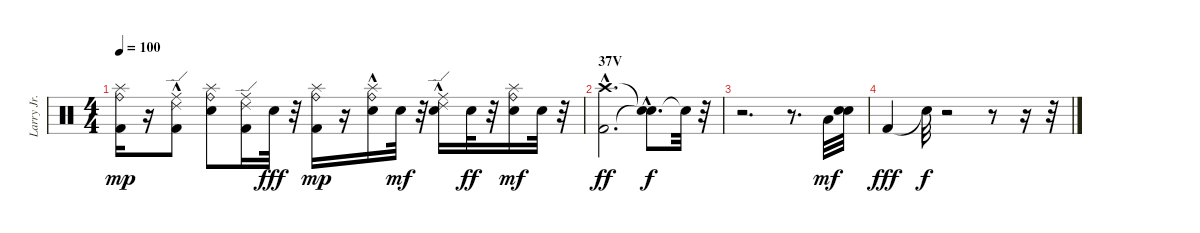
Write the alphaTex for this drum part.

\track ("Larry Jr." "Larry Jr.") {instrument percussion}
\staff {score}
\articulation defaults
\ts (4 4)
\tempo 100
\clef neutral
\ks c
("Kick (hit) 2" "Ride (bell)" "Splash (hit)").16{dy mp} r.16 ("Kick (hit) 2" "Ride (middle)" "Ride (edge) 2"{hac}).8 ("Electric Snare (hit)" "Ride (bell)" "Splash (hit)").8 ("Kick (hit) 2" "Ride (middle)" "Ride (edge) 2").16 "Electric Snare (hit)".32{dy fff} r.32 ("Kick (hit) 2" "Ride (bell)" "Splash (hit)").16{dy mp} r.16 ("Electric Snare (hit)" "Ride (bell)" "Splash (hit)"{hac}).16 "Electric Snare (hit)".32{dy mf} r.32 ("Electric Snare (hit)" "Ride (middle)"{hac} "Ride (edge) 2").16 "Electric Snare (hit)".32{dy ff} r.32 ("Electric Snare (hit)" "Ride (bell)" "Splash (hit)").16{dy mf} "Electric Snare (hit)".32 r.32 |
\section ("" "37V")
("Kick (hit) 2"{hac} "Crash high (hit)"{hac}).2{d dy ff} ("Snare (hit)"{hac t} "Snare (hit)"{hac t}).8{d dy f} "Snare (hit)"{t}.32 r.32 |
r.2{d} r.8{d} "Low Floor Tom (hit)".32{dy mf} ("Electric Snare (hit)" "Snare (hit) 2").32 |
"Kick (hit) 2".4{dy fff} "Snare (hit)"{t}.32{dy f} r.2 r.8 r.16 r.32
